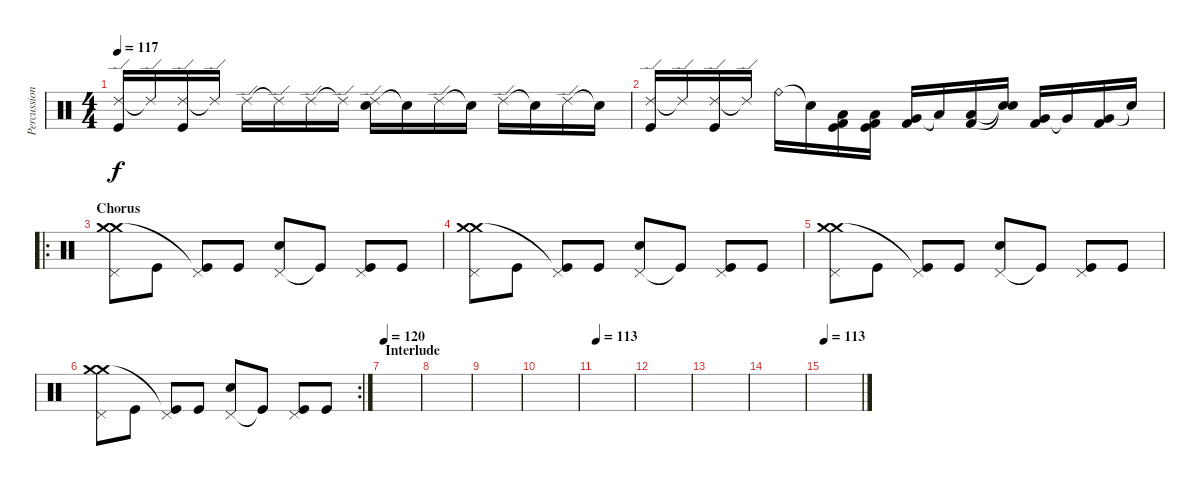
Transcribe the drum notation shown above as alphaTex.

\track ("Percussions" "Percussion") {instrument percussion}
\staff {score}
\articulation defaults
\ts (4 4)
\tempo 117
\clef neutral
\ks c
("Ride (edge) 2" "Kick (hit)").16{dy f} "Ride (edge) 2"{t}.16 ("Ride (edge) 2" "Kick (hit)").16 "Ride (edge) 2"{t}.16 "Ride (edge) 2".16 "Ride (edge) 2"{t}.16 "Ride (edge) 2".16 "Ride (edge) 2"{t}.16 ("Ride (edge) 2" "Electric Snare (hit)").16 "Snare (hit)"{t}.16 "Ride (edge) 2".16 "Snare (hit)"{t}.16 "Ride (edge) 2".16 "Snare (hit)"{t}.16 "Ride (edge) 2".16 "Snare (hit)"{t}.16 |
("Ride (edge) 2" "Kick (hit)").16 "Ride (edge) 2"{t}.16 ("Ride (edge) 2" "Kick (hit)").16 "Ride (edge) 2"{t}.16 "Ride (bell)".16 "Snare (hit)"{t}.16 ("Low Floor Tom (hit)" "Kick (hit) 2" "Kick (hit)").16 ("Low Floor Tom (hit)" "Kick (hit) 2" "Kick (hit)").16 ("Very Low Tom (hit)" "Kick (hit) 2").16 "Low Tom (hit)"{t}.16 ("Low Tom (hit)" "Kick (hit) 2").16 ("Snare (hit)"{t} "Snare (hit)"{t}).16 ("Very Low Tom (hit)" "Kick (hit) 2").16 "Very Low Tom (hit)"{t}.16 ("Very Low Tom (hit)" "Kick (hit) 2").16 "Snare (hit)"{t}.16 |
\ro
\section ("" "Chorus")
("Crash medium (hit)" "Crash medium (hit)" "Pedal Hi-Hat (hit)").8 "Kick (hit)".8 ("Pedal Hi-Hat (hit)" "Kick (hit)"{t}).8 "Kick (hit)".8 ("Pedal Hi-Hat (hit)" "Electric Snare (hit)").8 "Kick (hit)"{t}.8 ("Pedal Hi-Hat (hit)" "Kick (hit)").8 "Kick (hit)".8 |
("Crash medium (hit)" "Crash medium (hit)" "Pedal Hi-Hat (hit)").8 "Kick (hit)".8 ("Pedal Hi-Hat (hit)" "Kick (hit)"{t}).8 "Kick (hit)".8 ("Pedal Hi-Hat (hit)" "Electric Snare (hit)").8 "Kick (hit)"{t}.8 ("Pedal Hi-Hat (hit)" "Kick (hit)").8 "Kick (hit)".8 |
("Crash medium (hit)" "Crash medium (hit)" "Pedal Hi-Hat (hit)").8 "Kick (hit)".8 ("Pedal Hi-Hat (hit)" "Kick (hit)"{t}).8 "Kick (hit)".8 ("Pedal Hi-Hat (hit)" "Electric Snare (hit)").8 "Kick (hit)"{t}.8 ("Pedal Hi-Hat (hit)" "Kick (hit)").8 "Kick (hit)".8 |
\rc 2
("Crash medium (hit)" "Crash medium (hit)" "Pedal Hi-Hat (hit)").8 "Kick (hit)".8 ("Pedal Hi-Hat (hit)" "Kick (hit)"{t}).8 "Kick (hit)".8 ("Pedal Hi-Hat (hit)" "Electric Snare (hit)").8 "Kick (hit)"{t}.8 ("Pedal Hi-Hat (hit)" "Kick (hit)").8 "Kick (hit)".8 |
\section ("" "Interlude")
\tempo 120
|
|
|
|
\tempo 113
|
|
|
|
\tempo 113
